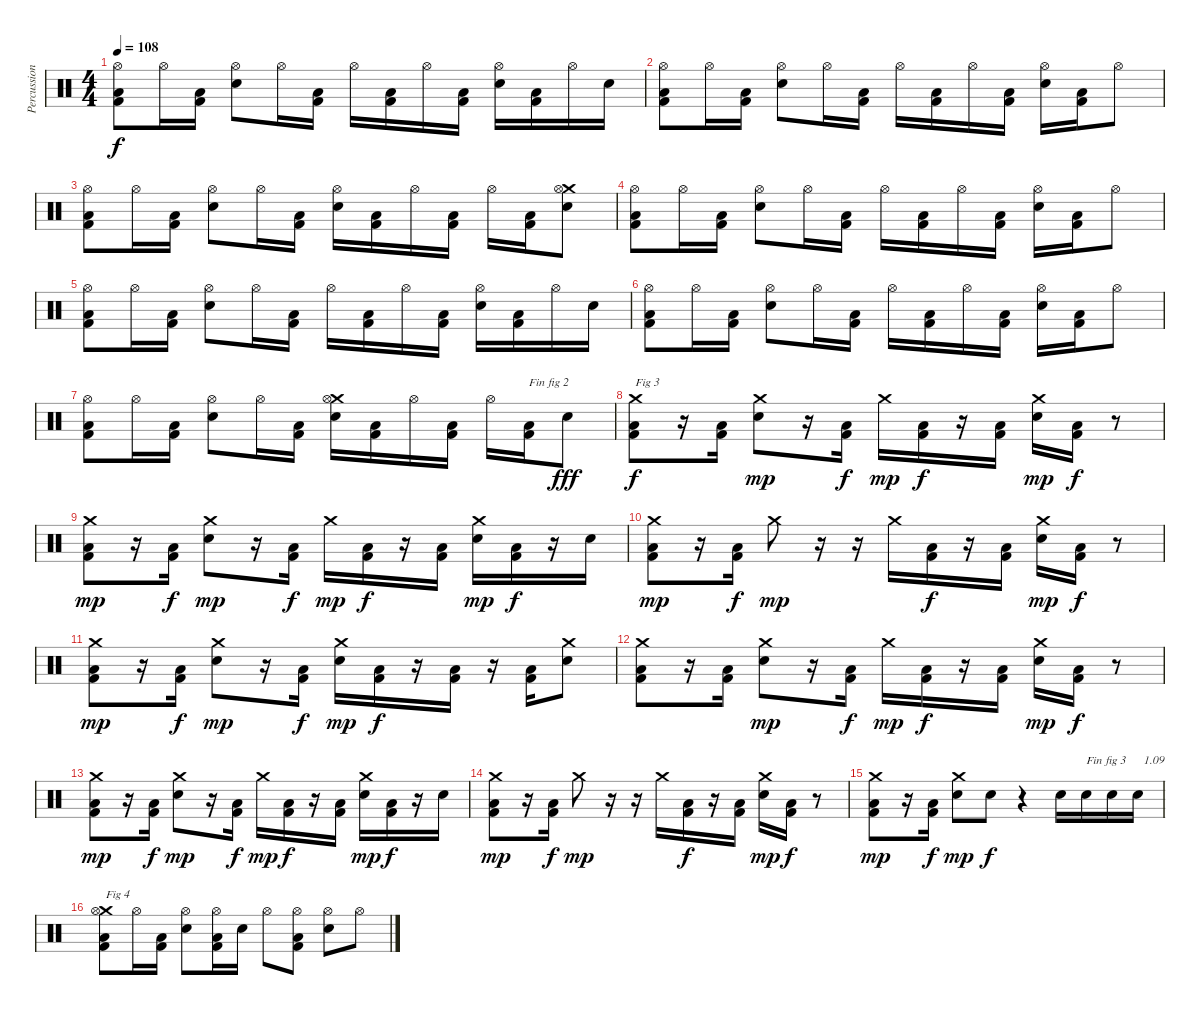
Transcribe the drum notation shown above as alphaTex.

\track ("Percussions" "Percussion") {instrument percussion}
\staff {score}
\articulation defaults
\ts (4 4)
\tempo 108
\clef neutral
\ks c
("Kick (hit) 2" "Low Floor Tom (hit)" "Hi-Hat (open)").8{dy f} "Hi-Hat (open)".16 ("Kick (hit) 2" "Low Floor Tom (hit)").16 ("Snare (hit) 2" "Hi-Hat (open)").8 "Hi-Hat (open)".16 ("Kick (hit) 2" "Low Floor Tom (hit)").16 "Hi-Hat (open)".16 ("Kick (hit) 2" "Low Floor Tom (hit)").16 "Hi-Hat (open)".16 ("Kick (hit) 2" "Low Floor Tom (hit)").16 ("Snare (hit) 2" "Hi-Hat (open)").16 ("Kick (hit) 2" "Low Floor Tom (hit)").16 "Hi-Hat (open)".16 "Snare (hit) 2".16 |
("Kick (hit) 2" "Low Floor Tom (hit)" "Hi-Hat (open)").8 "Hi-Hat (open)".16 ("Kick (hit) 2" "Low Floor Tom (hit)").16 ("Snare (hit) 2" "Hi-Hat (open)").8 "Hi-Hat (open)".16 ("Kick (hit) 2" "Low Floor Tom (hit)").16 "Hi-Hat (open)".16 ("Kick (hit) 2" "Low Floor Tom (hit)").16 "Hi-Hat (open)".16 ("Kick (hit) 2" "Low Floor Tom (hit)").16 ("Snare (hit) 2" "Hi-Hat (open)").16 ("Kick (hit) 2" "Low Floor Tom (hit)").16 "Hi-Hat (open)".8 |
("Kick (hit) 2" "Low Floor Tom (hit)" "Hi-Hat (open)").8 "Hi-Hat (open)".16 ("Kick (hit) 2" "Low Floor Tom (hit)").16 ("Snare (hit) 2" "Hi-Hat (open)").8 "Hi-Hat (open)".16 ("Kick (hit) 2" "Low Floor Tom (hit)").16 ("Snare (hit) 2" "Hi-Hat (open)").16 ("Kick (hit) 2" "Low Floor Tom (hit)").16 "Hi-Hat (open)".16 ("Kick (hit) 2" "Low Floor Tom (hit)").16 "Hi-Hat (open)".16 ("Kick (hit) 2" "Low Floor Tom (hit)").16 ("Snare (hit) 2" "Crash medium (hit)" "Hi-Hat (open)").8 |
("Kick (hit) 2" "Low Floor Tom (hit)" "Hi-Hat (open)").8 "Hi-Hat (open)".16 ("Kick (hit) 2" "Low Floor Tom (hit)").16 ("Snare (hit) 2" "Hi-Hat (open)").8 "Hi-Hat (open)".16 ("Kick (hit) 2" "Low Floor Tom (hit)").16 "Hi-Hat (open)".16 ("Kick (hit) 2" "Low Floor Tom (hit)").16 "Hi-Hat (open)".16 ("Kick (hit) 2" "Low Floor Tom (hit)").16 ("Snare (hit) 2" "Hi-Hat (open)").16 ("Kick (hit) 2" "Low Floor Tom (hit)").16 "Hi-Hat (open)".8 |
("Kick (hit) 2" "Low Floor Tom (hit)" "Hi-Hat (open)").8 "Hi-Hat (open)".16 ("Kick (hit) 2" "Low Floor Tom (hit)").16 ("Snare (hit) 2" "Hi-Hat (open)").8 "Hi-Hat (open)".16 ("Kick (hit) 2" "Low Floor Tom (hit)").16 "Hi-Hat (open)".16 ("Kick (hit) 2" "Low Floor Tom (hit)").16 "Hi-Hat (open)".16 ("Kick (hit) 2" "Low Floor Tom (hit)").16 ("Snare (hit) 2" "Hi-Hat (open)").16 ("Kick (hit) 2" "Low Floor Tom (hit)").16 "Hi-Hat (open)".16 "Snare (hit) 2".16 |
("Kick (hit) 2" "Low Floor Tom (hit)" "Hi-Hat (open)").8 "Hi-Hat (open)".16 ("Kick (hit) 2" "Low Floor Tom (hit)").16 ("Snare (hit) 2" "Hi-Hat (open)").8 "Hi-Hat (open)".16 ("Kick (hit) 2" "Low Floor Tom (hit)").16 "Hi-Hat (open)".16 ("Kick (hit) 2" "Low Floor Tom (hit)").16 "Hi-Hat (open)".16 ("Kick (hit) 2" "Low Floor Tom (hit)").16 ("Snare (hit) 2" "Hi-Hat (open)").16 ("Kick (hit) 2" "Low Floor Tom (hit)").16 "Hi-Hat (open)".8 |
("Kick (hit) 2" "Low Floor Tom (hit)" "Hi-Hat (open)").8 "Hi-Hat (open)".16 ("Kick (hit) 2" "Low Floor Tom (hit)").16 ("Snare (hit) 2" "Hi-Hat (open)").8 "Hi-Hat (open)".16 ("Kick (hit) 2" "Low Floor Tom (hit)").16 ("Snare (hit) 2" "Crash medium (hit)" "Hi-Hat (open)").16 ("Kick (hit) 2" "Low Floor Tom (hit)").16 "Hi-Hat (open)".16 ("Kick (hit) 2" "Low Floor Tom (hit)").16 "Hi-Hat (open)".16 ("Kick (hit) 2" "Low Floor Tom (hit)").16{txt "Fin fig 2"} "Snare (hit) 2".8{dy fff} |
("Kick (hit) 2" "Low Floor Tom (hit)" "Crash medium (hit)").8{txt "Fig 3" dy f} r.16 ("Kick (hit) 2" "Low Floor Tom (hit)").16 ("Snare (hit) 2" "Crash medium (hit)").8{dy mp} r.16 ("Kick (hit) 2" "Low Floor Tom (hit)").16{dy f} "Crash medium (hit)".16{dy mp} ("Kick (hit) 2" "Low Floor Tom (hit)").16{dy f} r.16 ("Kick (hit) 2" "Low Floor Tom (hit)").16 ("Snare (hit) 2" "Crash medium (hit)").16{dy mp} ("Kick (hit) 2" "Low Floor Tom (hit)").16{dy f} r.8 |
("Kick (hit) 2" "Low Floor Tom (hit)" "Crash medium (hit)").8{dy mp} r.16 ("Kick (hit) 2" "Low Floor Tom (hit)").16{dy f} ("Snare (hit) 2" "Crash medium (hit)").8{dy mp} r.16 ("Kick (hit) 2" "Low Floor Tom (hit)").16{dy f} "Crash medium (hit)".16{dy mp} ("Kick (hit) 2" "Low Floor Tom (hit)").16{dy f} r.16 ("Kick (hit) 2" "Low Floor Tom (hit)").16 ("Snare (hit) 2" "Crash medium (hit)").16{dy mp} ("Kick (hit) 2" "Low Floor Tom (hit)").16{dy f} r.16 "Snare (hit) 2".16 |
("Kick (hit) 2" "Low Floor Tom (hit)" "Crash medium (hit)").8{dy mp} r.16 ("Kick (hit) 2" "Low Floor Tom (hit)").16{dy f} "Crash medium (hit)".8{dy mp} r.16 r.16 "Crash medium (hit)".16 ("Kick (hit) 2" "Low Floor Tom (hit)").16{dy f} r.16 ("Kick (hit) 2" "Low Floor Tom (hit)").16 ("Snare (hit) 2" "Crash medium (hit)").16{dy mp} ("Kick (hit) 2" "Low Floor Tom (hit)").16{dy f} r.8 |
("Kick (hit) 2" "Low Floor Tom (hit)" "Crash medium (hit)").8{dy mp} r.16 ("Kick (hit) 2" "Low Floor Tom (hit)").16{dy f} ("Snare (hit) 2" "Crash medium (hit)").8{dy mp} r.16 ("Kick (hit) 2" "Low Floor Tom (hit)").16{dy f} ("Snare (hit) 2" "Crash medium (hit)").16{dy mp} ("Kick (hit) 2" "Low Floor Tom (hit)").16{dy f} r.16 ("Kick (hit) 2" "Low Floor Tom (hit)").16 r.16 ("Kick (hit) 2" "Low Floor Tom (hit)").16 ("Snare (hit) 2" "Crash medium (hit)").8 |
("Kick (hit) 2" "Low Floor Tom (hit)" "Crash medium (hit)").8 r.16 ("Kick (hit) 2" "Low Floor Tom (hit)").16 ("Snare (hit) 2" "Crash medium (hit)").8{dy mp} r.16 ("Kick (hit) 2" "Low Floor Tom (hit)").16{dy f} "Crash medium (hit)".16{dy mp} ("Kick (hit) 2" "Low Floor Tom (hit)").16{dy f} r.16 ("Kick (hit) 2" "Low Floor Tom (hit)").16 ("Snare (hit) 2" "Crash medium (hit)").16{dy mp} ("Kick (hit) 2" "Low Floor Tom (hit)").16{dy f} r.8 |
("Kick (hit) 2" "Low Floor Tom (hit)" "Crash medium (hit)").8{dy mp} r.16 ("Kick (hit) 2" "Low Floor Tom (hit)").16{dy f} ("Snare (hit) 2" "Crash medium (hit)").8{dy mp} r.16 ("Kick (hit) 2" "Low Floor Tom (hit)").16{dy f} "Crash medium (hit)".16{dy mp} ("Kick (hit) 2" "Low Floor Tom (hit)").16{dy f} r.16 ("Kick (hit) 2" "Low Floor Tom (hit)").16 ("Snare (hit) 2" "Crash medium (hit)").16{dy mp} ("Kick (hit) 2" "Low Floor Tom (hit)").16{dy f} r.16 "Snare (hit) 2".16 |
("Kick (hit) 2" "Low Floor Tom (hit)" "Crash medium (hit)").8{dy mp} r.16 ("Kick (hit) 2" "Low Floor Tom (hit)").16{dy f} "Crash medium (hit)".8{dy mp} r.16 r.16 "Crash medium (hit)".16 ("Kick (hit) 2" "Low Floor Tom (hit)").16{dy f} r.16 ("Kick (hit) 2" "Low Floor Tom (hit)").16 ("Snare (hit) 2" "Crash medium (hit)").16{dy mp} ("Kick (hit) 2" "Low Floor Tom (hit)").16{dy f} r.8 |
("Kick (hit) 2" "Low Floor Tom (hit)" "Crash medium (hit)").8{dy mp} r.16 ("Kick (hit) 2" "Low Floor Tom (hit)").16{dy f} ("Snare (hit) 2" "Crash medium (hit)").8{dy mp} "Snare (hit) 2".8{dy f} r.4 "Snare (hit) 2".16 "Snare (hit) 2".16{txt "Fin fig 3"} "Snare (hit) 2".16 "Snare (hit) 2".16{txt "  1.09"} |
("Kick (hit) 2" "Low Floor Tom (hit)" "Crash medium (hit)" "Hi-Hat (open)").8{txt "Fig 4"} "Hi-Hat (open)".16 ("Kick (hit) 2" "Low Floor Tom (hit)").16 ("Snare (hit) 2" "Hi-Hat (open)").8 ("Kick (hit) 2" "Low Floor Tom (hit)" "Hi-Hat (open)").16 "Snare (hit) 2".16 "Hi-Hat (open)".8 ("Kick (hit) 2" "Low Floor Tom (hit)" "Hi-Hat (open)").8 ("Snare (hit) 2" "Hi-Hat (open)").8 "Hi-Hat (open)".8
